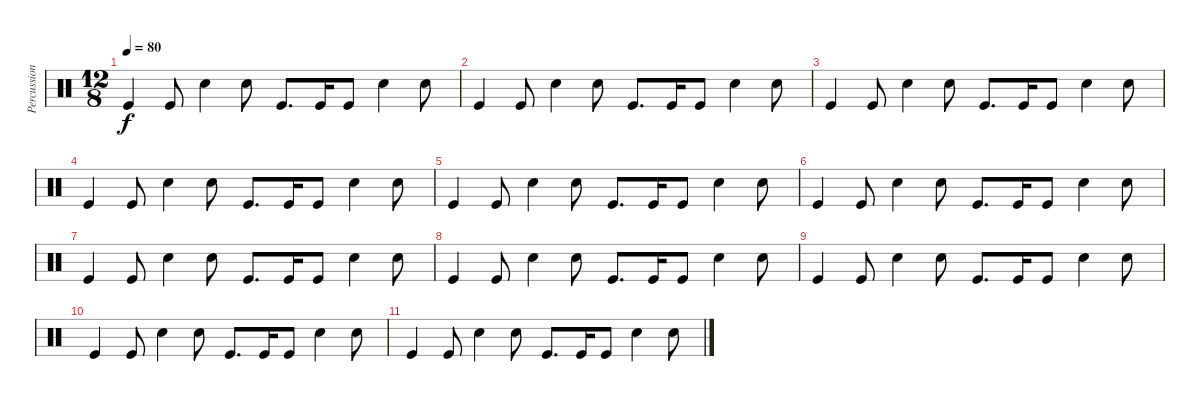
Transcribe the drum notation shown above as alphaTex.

\track ("Percussion" "Percussion") {instrument percussion}
\staff {score}
\articulation defaults
\ts (12 8)
\tempo 80
\clef neutral
\ks c "Kick (hit)".4{dy f} "Kick (hit)".8 "Snare (hit) 2".4 "Snare (hit) 2".8 "Kick (hit)".8{d} "Kick (hit)".16 "Kick (hit)".8 "Snare (hit) 2".4 "Snare (hit) 2".8
|
"Kick (hit)".4 "Kick (hit)".8 "Snare (hit) 2".4 "Snare (hit) 2".8 "Kick (hit)".8{d} "Kick (hit)".16 "Kick (hit)".8 "Snare (hit) 2".4 "Snare (hit) 2".8 |
"Kick (hit)".4 "Kick (hit)".8 "Snare (hit) 2".4 "Snare (hit) 2".8 "Kick (hit)".8{d} "Kick (hit)".16 "Kick (hit)".8 "Snare (hit) 2".4 "Snare (hit) 2".8 |
"Kick (hit)".4 "Kick (hit)".8 "Snare (hit) 2".4 "Snare (hit) 2".8 "Kick (hit)".8{d} "Kick (hit)".16 "Kick (hit)".8 "Snare (hit) 2".4 "Snare (hit) 2".8 |
"Kick (hit)".4 "Kick (hit)".8 "Snare (hit) 2".4 "Snare (hit) 2".8 "Kick (hit)".8{d} "Kick (hit)".16 "Kick (hit)".8 "Snare (hit) 2".4 "Snare (hit) 2".8 |
"Kick (hit)".4 "Kick (hit)".8 "Snare (hit) 2".4 "Snare (hit) 2".8 "Kick (hit)".8{d} "Kick (hit)".16 "Kick (hit)".8 "Snare (hit) 2".4 "Snare (hit) 2".8 |
"Kick (hit)".4 "Kick (hit)".8 "Snare (hit) 2".4 "Snare (hit) 2".8 "Kick (hit)".8{d} "Kick (hit)".16 "Kick (hit)".8 "Snare (hit) 2".4 "Snare (hit) 2".8 |
"Kick (hit)".4 "Kick (hit)".8 "Snare (hit) 2".4 "Snare (hit) 2".8 "Kick (hit)".8{d} "Kick (hit)".16 "Kick (hit)".8 "Snare (hit) 2".4 "Snare (hit) 2".8 |
"Kick (hit)".4 "Kick (hit)".8 "Snare (hit) 2".4 "Snare (hit) 2".8 "Kick (hit)".8{d} "Kick (hit)".16 "Kick (hit)".8 "Snare (hit) 2".4 "Snare (hit) 2".8 |
"Kick (hit)".4 "Kick (hit)".8 "Snare (hit) 2".4 "Snare (hit) 2".8 "Kick (hit)".8{d} "Kick (hit)".16 "Kick (hit)".8 "Snare (hit) 2".4 "Snare (hit) 2".8 |
"Kick (hit)".4 "Kick (hit)".8 "Snare (hit) 2".4 "Snare (hit) 2".8 "Kick (hit)".8{d} "Kick (hit)".16 "Kick (hit)".8 "Snare (hit) 2".4 "Snare (hit) 2".8
